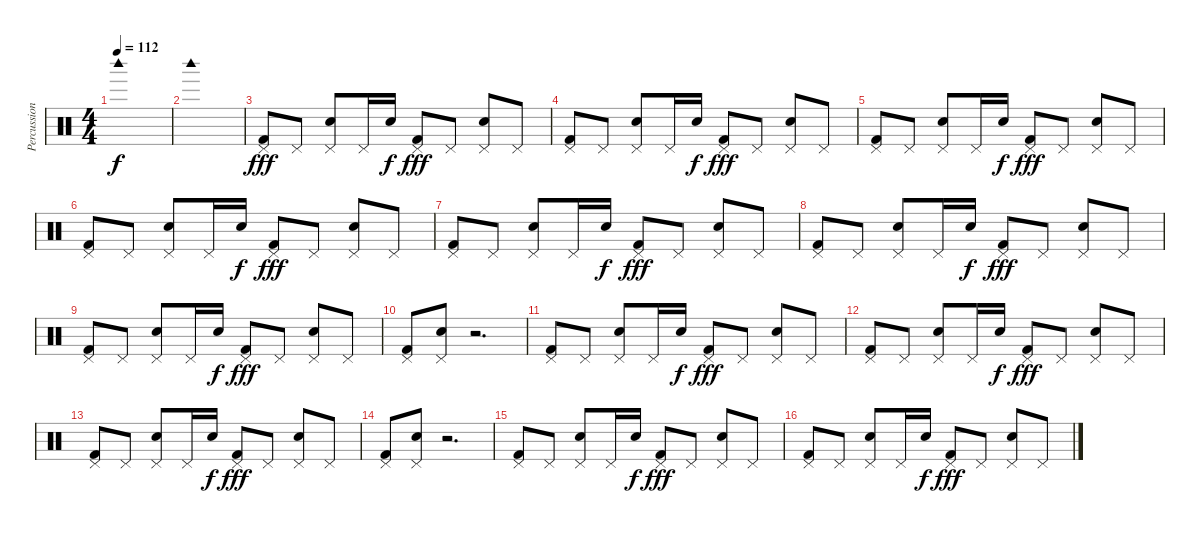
\track ("Percussions" "Percussion") {instrument percussion}
\staff {score}
\articulation defaults
\ts (4 4)
\tempo 112
\clef neutral
\ks c "Woodblock high (hit)".1{dy f}
|
"Woodblock high (hit)".1 |
("Pedal Hi-Hat (hit)" "Kick (hit) 2").8{dy fff} "Pedal Hi-Hat (hit)".8 ("Pedal Hi-Hat (hit)" "Electric Snare (hit)").8 "Pedal Hi-Hat (hit)".16 "Electric Snare (hit)".16{dy f} ("Pedal Hi-Hat (hit)" "Kick (hit) 2").8{dy fff} "Pedal Hi-Hat (hit)".8 ("Pedal Hi-Hat (hit)" "Electric Snare (hit)").8 "Pedal Hi-Hat (hit)".8 |
("Pedal Hi-Hat (hit)" "Kick (hit) 2").8 "Pedal Hi-Hat (hit)".8 ("Pedal Hi-Hat (hit)" "Electric Snare (hit)").8 "Pedal Hi-Hat (hit)".16 "Electric Snare (hit)".16{dy f} ("Pedal Hi-Hat (hit)" "Kick (hit) 2").8{dy fff} "Pedal Hi-Hat (hit)".8 ("Pedal Hi-Hat (hit)" "Electric Snare (hit)").8 "Pedal Hi-Hat (hit)".8 |
("Pedal Hi-Hat (hit)" "Kick (hit) 2").8 "Pedal Hi-Hat (hit)".8 ("Pedal Hi-Hat (hit)" "Electric Snare (hit)").8 "Pedal Hi-Hat (hit)".16 "Electric Snare (hit)".16{dy f} ("Pedal Hi-Hat (hit)" "Kick (hit) 2").8{dy fff} "Pedal Hi-Hat (hit)".8 ("Pedal Hi-Hat (hit)" "Electric Snare (hit)").8 "Pedal Hi-Hat (hit)".8 |
("Pedal Hi-Hat (hit)" "Kick (hit) 2").8 "Pedal Hi-Hat (hit)".8 ("Pedal Hi-Hat (hit)" "Electric Snare (hit)").8 "Pedal Hi-Hat (hit)".16 "Electric Snare (hit)".16{dy f} ("Pedal Hi-Hat (hit)" "Kick (hit) 2").8{dy fff} "Pedal Hi-Hat (hit)".8 ("Pedal Hi-Hat (hit)" "Electric Snare (hit)").8 "Pedal Hi-Hat (hit)".8 |
("Pedal Hi-Hat (hit)" "Kick (hit) 2").8 "Pedal Hi-Hat (hit)".8 ("Pedal Hi-Hat (hit)" "Electric Snare (hit)").8 "Pedal Hi-Hat (hit)".16 "Electric Snare (hit)".16{dy f} ("Pedal Hi-Hat (hit)" "Kick (hit) 2").8{dy fff} "Pedal Hi-Hat (hit)".8 ("Pedal Hi-Hat (hit)" "Electric Snare (hit)").8 "Pedal Hi-Hat (hit)".8 |
("Pedal Hi-Hat (hit)" "Kick (hit) 2").8 "Pedal Hi-Hat (hit)".8 ("Pedal Hi-Hat (hit)" "Electric Snare (hit)").8 "Pedal Hi-Hat (hit)".16 "Electric Snare (hit)".16{dy f} ("Pedal Hi-Hat (hit)" "Kick (hit) 2").8{dy fff} "Pedal Hi-Hat (hit)".8 ("Pedal Hi-Hat (hit)" "Electric Snare (hit)").8 "Pedal Hi-Hat (hit)".8 |
("Pedal Hi-Hat (hit)" "Kick (hit) 2").8 "Pedal Hi-Hat (hit)".8 ("Pedal Hi-Hat (hit)" "Electric Snare (hit)").8 "Pedal Hi-Hat (hit)".16 "Electric Snare (hit)".16{dy f} ("Pedal Hi-Hat (hit)" "Kick (hit) 2").8{dy fff} "Pedal Hi-Hat (hit)".8 ("Pedal Hi-Hat (hit)" "Electric Snare (hit)").8 "Pedal Hi-Hat (hit)".8 |
("Pedal Hi-Hat (hit)" "Kick (hit) 2").8 ("Pedal Hi-Hat (hit)" "Electric Snare (hit)").8 r.2{d} |
("Pedal Hi-Hat (hit)" "Kick (hit) 2").8 "Pedal Hi-Hat (hit)".8 ("Pedal Hi-Hat (hit)" "Electric Snare (hit)").8 "Pedal Hi-Hat (hit)".16 "Electric Snare (hit)".16{dy f} ("Pedal Hi-Hat (hit)" "Kick (hit) 2").8{dy fff} "Pedal Hi-Hat (hit)".8 ("Pedal Hi-Hat (hit)" "Electric Snare (hit)").8 "Pedal Hi-Hat (hit)".8 |
("Pedal Hi-Hat (hit)" "Kick (hit) 2").8 "Pedal Hi-Hat (hit)".8 ("Pedal Hi-Hat (hit)" "Electric Snare (hit)").8 "Pedal Hi-Hat (hit)".16 "Electric Snare (hit)".16{dy f} ("Pedal Hi-Hat (hit)" "Kick (hit) 2").8{dy fff} "Pedal Hi-Hat (hit)".8 ("Pedal Hi-Hat (hit)" "Electric Snare (hit)").8 "Pedal Hi-Hat (hit)".8 |
("Pedal Hi-Hat (hit)" "Kick (hit) 2").8 "Pedal Hi-Hat (hit)".8 ("Pedal Hi-Hat (hit)" "Electric Snare (hit)").8 "Pedal Hi-Hat (hit)".16 "Electric Snare (hit)".16{dy f} ("Pedal Hi-Hat (hit)" "Kick (hit) 2").8{dy fff} "Pedal Hi-Hat (hit)".8 ("Pedal Hi-Hat (hit)" "Electric Snare (hit)").8 "Pedal Hi-Hat (hit)".8 |
("Pedal Hi-Hat (hit)" "Kick (hit) 2").8 ("Pedal Hi-Hat (hit)" "Electric Snare (hit)").8 r.2{d} |
("Pedal Hi-Hat (hit)" "Kick (hit) 2").8 "Pedal Hi-Hat (hit)".8 ("Pedal Hi-Hat (hit)" "Electric Snare (hit)").8 "Pedal Hi-Hat (hit)".16 "Electric Snare (hit)".16{dy f} ("Pedal Hi-Hat (hit)" "Kick (hit) 2").8{dy fff} "Pedal Hi-Hat (hit)".8 ("Pedal Hi-Hat (hit)" "Electric Snare (hit)").8 "Pedal Hi-Hat (hit)".8 |
("Pedal Hi-Hat (hit)" "Kick (hit) 2").8 "Pedal Hi-Hat (hit)".8 ("Pedal Hi-Hat (hit)" "Electric Snare (hit)").8 "Pedal Hi-Hat (hit)".16 "Electric Snare (hit)".16{dy f} ("Pedal Hi-Hat (hit)" "Kick (hit) 2").8{dy fff} "Pedal Hi-Hat (hit)".8 ("Pedal Hi-Hat (hit)" "Electric Snare (hit)").8 "Pedal Hi-Hat (hit)".8
